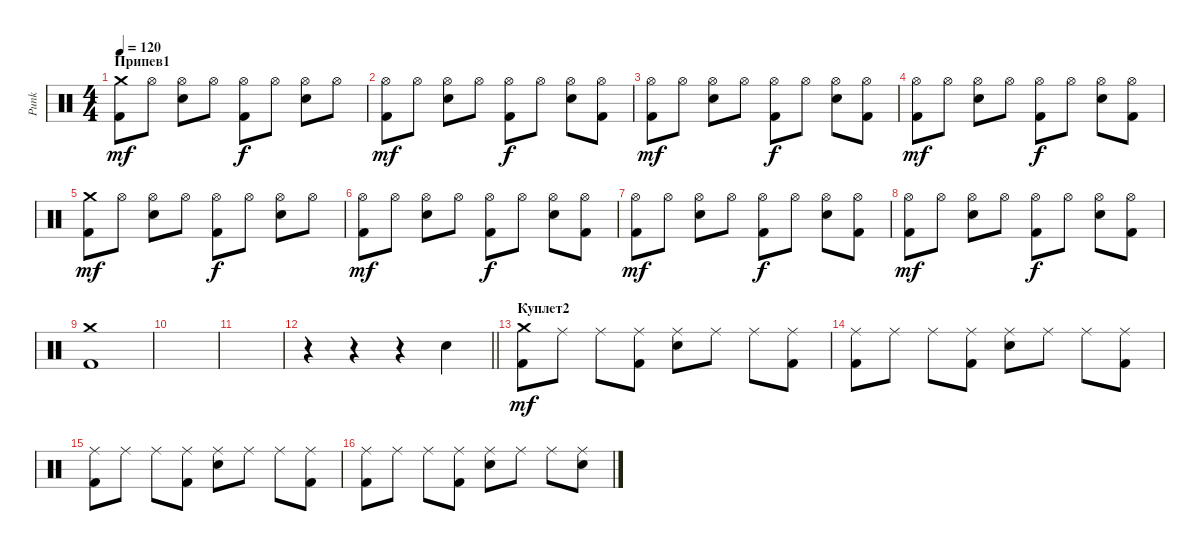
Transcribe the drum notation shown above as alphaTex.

\track ("Punk" "Punk") {instrument percussion}
\staff {score}
\articulation defaults
\ts (4 4)
\section ("" "Припев1")
\tempo 120
\clef neutral
\ks c
("Crash medium (hit)" "Kick (hit) 2").8{dy mf} "Hi-Hat (open)".8 ("Hi-Hat (open)" "Electric Snare (hit)").8 "Hi-Hat (open)".8 ("Hi-Hat (open)" "Kick (hit) 2").8{dy f} "Hi-Hat (open)".8 ("Hi-Hat (open)" "Electric Snare (hit)").8 "Hi-Hat (open)".8 |
("Hi-Hat (open)" "Kick (hit) 2").8{dy mf} "Hi-Hat (open)".8 ("Hi-Hat (open)" "Electric Snare (hit)").8 "Hi-Hat (open)".8 ("Hi-Hat (open)" "Kick (hit) 2").8{dy f} "Hi-Hat (open)".8 ("Hi-Hat (open)" "Electric Snare (hit)").8 ("Hi-Hat (open)" "Kick (hit) 2").8 |
("Hi-Hat (open)" "Kick (hit) 2").8{dy mf} "Hi-Hat (open)".8 ("Hi-Hat (open)" "Electric Snare (hit)").8 "Hi-Hat (open)".8 ("Hi-Hat (open)" "Kick (hit) 2").8{dy f} "Hi-Hat (open)".8 ("Hi-Hat (open)" "Electric Snare (hit)").8 ("Hi-Hat (open)" "Kick (hit) 2").8 |
("Hi-Hat (open)" "Kick (hit) 2").8{dy mf} "Hi-Hat (open)".8 ("Hi-Hat (open)" "Electric Snare (hit)").8 "Hi-Hat (open)".8 ("Hi-Hat (open)" "Kick (hit) 2").8{dy f} "Hi-Hat (open)".8 ("Hi-Hat (open)" "Electric Snare (hit)").8 ("Hi-Hat (open)" "Kick (hit) 2").8 |
("Crash medium (hit)" "Kick (hit) 2").8{dy mf} "Hi-Hat (open)".8 ("Hi-Hat (open)" "Electric Snare (hit)").8 "Hi-Hat (open)".8 ("Hi-Hat (open)" "Kick (hit) 2").8{dy f} "Hi-Hat (open)".8 ("Hi-Hat (open)" "Electric Snare (hit)").8 "Hi-Hat (open)".8 |
("Hi-Hat (open)" "Kick (hit) 2").8{dy mf} "Hi-Hat (open)".8 ("Hi-Hat (open)" "Electric Snare (hit)").8 "Hi-Hat (open)".8 ("Hi-Hat (open)" "Kick (hit) 2").8{dy f} "Hi-Hat (open)".8 ("Hi-Hat (open)" "Electric Snare (hit)").8 ("Hi-Hat (open)" "Kick (hit) 2").8 |
("Hi-Hat (open)" "Kick (hit) 2").8{dy mf} "Hi-Hat (open)".8 ("Hi-Hat (open)" "Electric Snare (hit)").8 "Hi-Hat (open)".8 ("Hi-Hat (open)" "Kick (hit) 2").8{dy f} "Hi-Hat (open)".8 ("Hi-Hat (open)" "Electric Snare (hit)").8 ("Hi-Hat (open)" "Kick (hit) 2").8 |
("Hi-Hat (open)" "Kick (hit) 2").8{dy mf} "Hi-Hat (open)".8 ("Hi-Hat (open)" "Electric Snare (hit)").8 "Hi-Hat (open)".8 ("Hi-Hat (open)" "Kick (hit) 2").8{dy f} "Hi-Hat (open)".8 ("Hi-Hat (open)" "Electric Snare (hit)").8 ("Hi-Hat (open)" "Kick (hit) 2").8 |
("Crash medium (hit)" "Kick (hit) 2").1 |
|
|
\barLineRight lightlight
r.4 r.4 r.4 "Electric Snare (hit)".4 |
\section ("" "Куплет2")
("Crash medium (hit)" "Kick (hit) 2").8{dy mf} "Ride (middle)".8 "Ride (middle)".8 ("Ride (middle)" "Kick (hit) 2").8 ("Ride (middle)" "Electric Snare (hit)").8 "Ride (middle)".8 "Ride (middle)".8 ("Ride (middle)" "Kick (hit) 2").8 |
("Ride (middle)" "Kick (hit) 2").8 "Ride (middle)".8 "Ride (middle)".8 ("Ride (middle)" "Kick (hit) 2").8 ("Ride (middle)" "Electric Snare (hit)").8 "Ride (middle)".8 "Ride (middle)".8 ("Ride (middle)" "Kick (hit) 2").8 |
("Ride (middle)" "Kick (hit) 2").8 "Ride (middle)".8 "Ride (middle)".8 ("Ride (middle)" "Kick (hit) 2").8 ("Ride (middle)" "Electric Snare (hit)").8 "Ride (middle)".8 "Ride (middle)".8 ("Ride (middle)" "Kick (hit) 2").8 |
("Ride (middle)" "Kick (hit) 2").8 "Ride (middle)".8 "Ride (middle)".8 ("Ride (middle)" "Kick (hit) 2").8 ("Ride (middle)" "Electric Snare (hit)").8 "Ride (middle)".8 "Ride (middle)".8 ("Ride (middle)" "Electric Snare (hit)").8
